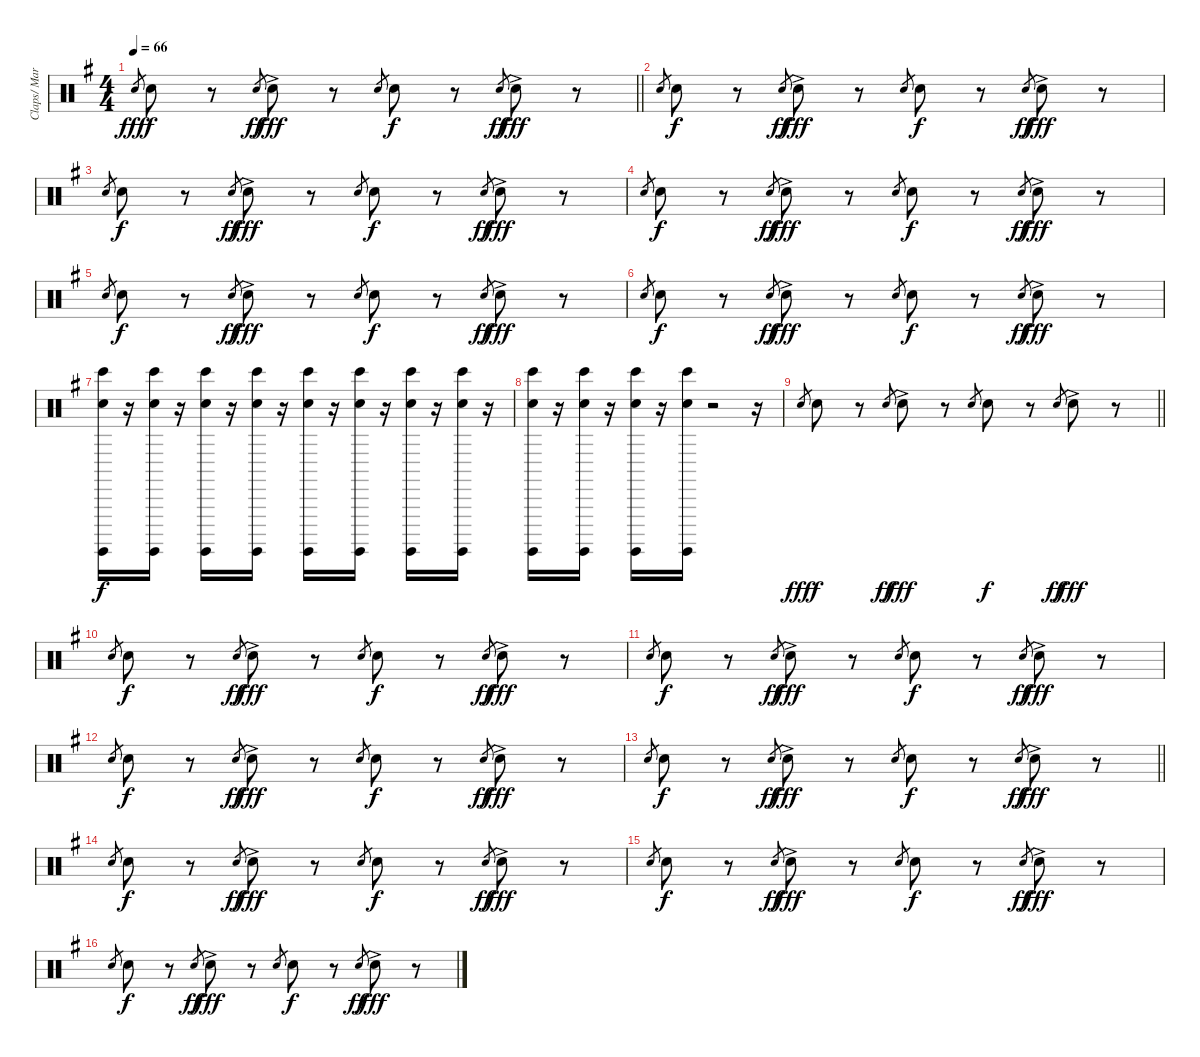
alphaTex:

\track ("Claps/ Marching FX" "Claps/ Mar") {instrument percussion}
\staff {score}
\articulation defaults
\ts (4 4)
\tempo 66
\clef neutral
\barLineRight lightlight
\ks g "Hand Clap (hit)".8{gr dy fff} "Hand Clap (hit)".8{dy f balance 12}
r.8 "Hand Clap (hit)".8{gr dy ff} "Hand Clap (hit)"{ac}.8{dy fff balance 4} r.8 "Hand Clap (hit)".8{gr} "Hand Clap (hit)".8{dy f balance 12} r.8 "Hand Clap (hit)".8{gr dy ff} "Hand Clap (hit)"{ac}.8{dy fff balance 4} r.8 |
"Hand Clap (hit)".8{gr} "Hand Clap (hit)".8{dy f balance 12} r.8 "Hand Clap (hit)".8{gr dy ff} "Hand Clap (hit)"{ac}.8{dy fff balance 4} r.8 "Hand Clap (hit)".8{gr} "Hand Clap (hit)".8{dy f balance 12} r.8 "Hand Clap (hit)".8{gr dy ff} "Hand Clap (hit)"{ac}.8{dy fff balance 4} r.8 |
"Hand Clap (hit)".8{gr} "Hand Clap (hit)".8{dy f balance 12} r.8 "Hand Clap (hit)".8{gr dy ff} "Hand Clap (hit)"{ac}.8{dy fff balance 4} r.8 "Hand Clap (hit)".8{gr} "Hand Clap (hit)".8{dy f balance 12} r.8 "Hand Clap (hit)".8{gr dy ff} "Hand Clap (hit)"{ac}.8{dy fff balance 4} r.8 |
"Hand Clap (hit)".8{gr} "Hand Clap (hit)".8{dy f balance 12} r.8 "Hand Clap (hit)".8{gr dy ff} "Hand Clap (hit)"{ac}.8{dy fff balance 4} r.8 "Hand Clap (hit)".8{gr} "Hand Clap (hit)".8{dy f balance 12} r.8 "Hand Clap (hit)".8{gr dy ff} "Hand Clap (hit)"{ac}.8{dy fff balance 4} r.8 |
"Hand Clap (hit)".8{gr} "Hand Clap (hit)".8{dy f balance 12} r.8 "Hand Clap (hit)".8{gr dy ff} "Hand Clap (hit)"{ac}.8{dy fff balance 4} r.8 "Hand Clap (hit)".8{gr} "Hand Clap (hit)".8{dy f balance 12} r.8 "Hand Clap (hit)".8{gr dy ff} "Hand Clap (hit)"{ac}.8{dy fff balance 4} r.8 |
"Hand Clap (hit)".8{gr} "Hand Clap (hit)".8{dy f balance 12} r.8 "Hand Clap (hit)".8{gr dy ff} "Hand Clap (hit)"{ac}.8{dy fff balance 4} r.8 "Hand Clap (hit)".8{gr} "Hand Clap (hit)".8{dy f balance 12} r.8 "Hand Clap (hit)".8{gr dy ff} "Hand Clap (hit)"{ac}.8{dy fff balance 4} r.8 |
("Surdo (hit)" "Hand Clap (hit)" "Bongo High (hit)").16{dy f balance 0} r.16 ("Surdo (hit)" "Hand Clap (hit)" "Bongo High (hit)").16{balance 16} r.16 ("Surdo (hit)" "Hand Clap (hit)" "Bongo High (hit)").16{balance 0} r.16 ("Surdo (hit)" "Hand Clap (hit)" "Bongo High (hit)").16{balance 16} r.16 ("Surdo (hit)" "Hand Clap (hit)" "Bongo High (hit)").16{balance 0} r.16 ("Surdo (hit)" "Hand Clap (hit)" "Bongo High (hit)").16{balance 16} r.16 ("Surdo (hit)" "Hand Clap (hit)" "Bongo High (hit)").16{balance 0} r.16 ("Surdo (hit)" "Hand Clap (hit)" "Bongo High (hit)").16{balance 16} r.16 |
("Surdo (hit)" "Hand Clap (hit)" "Bongo High (hit)").16{balance 0} r.16 ("Surdo (hit)" "Hand Clap (hit)" "Bongo High (hit)").16{balance 16} r.16 ("Surdo (hit)" "Hand Clap (hit)" "Bongo High (hit)").16{balance 0} r.16 ("Surdo (hit)" "Hand Clap (hit)" "Bongo High (hit)").16{balance 8} r.2 r.16 |
\barLineRight lightlight "Hand Clap (hit)".8{gr dy fff} "Hand Clap (hit)".8{dy f balance 12}
r.8 "Hand Clap (hit)".8{gr dy ff} "Hand Clap (hit)"{ac}.8{dy fff balance 4} r.8 "Hand Clap (hit)".8{gr} "Hand Clap (hit)".8{dy f balance 12} r.8 "Hand Clap (hit)".8{gr dy ff} "Hand Clap (hit)"{ac}.8{dy fff balance 4} r.8 |
"Hand Clap (hit)".8{gr} "Hand Clap (hit)".8{dy f balance 12} r.8 "Hand Clap (hit)".8{gr dy ff} "Hand Clap (hit)"{ac}.8{dy fff balance 4} r.8 "Hand Clap (hit)".8{gr} "Hand Clap (hit)".8{dy f balance 12} r.8 "Hand Clap (hit)".8{gr dy ff} "Hand Clap (hit)"{ac}.8{dy fff balance 4} r.8 |
"Hand Clap (hit)".8{gr} "Hand Clap (hit)".8{dy f balance 12} r.8 "Hand Clap (hit)".8{gr dy ff} "Hand Clap (hit)"{ac}.8{dy fff balance 4} r.8 "Hand Clap (hit)".8{gr} "Hand Clap (hit)".8{dy f balance 12} r.8 "Hand Clap (hit)".8{gr dy ff} "Hand Clap (hit)"{ac}.8{dy fff balance 4} r.8 |
"Hand Clap (hit)".8{gr} "Hand Clap (hit)".8{dy f balance 12} r.8 "Hand Clap (hit)".8{gr dy ff} "Hand Clap (hit)"{ac}.8{dy fff balance 4} r.8 "Hand Clap (hit)".8{gr} "Hand Clap (hit)".8{dy f balance 12} r.8 "Hand Clap (hit)".8{gr dy ff} "Hand Clap (hit)"{ac}.8{dy fff balance 4} r.8 |
\barLineRight lightlight "Hand Clap (hit)".8{gr} "Hand Clap (hit)".8{dy f balance 12}
r.8 "Hand Clap (hit)".8{gr dy ff} "Hand Clap (hit)"{ac}.8{dy fff balance 4} r.8 "Hand Clap (hit)".8{gr} "Hand Clap (hit)".8{dy f balance 12} r.8 "Hand Clap (hit)".8{gr dy ff} "Hand Clap (hit)"{ac}.8{dy fff balance 4} r.8 |
"Hand Clap (hit)".8{gr} "Hand Clap (hit)".8{dy f balance 12} r.8 "Hand Clap (hit)".8{gr dy ff} "Hand Clap (hit)"{ac}.8{dy fff balance 4} r.8 "Hand Clap (hit)".8{gr} "Hand Clap (hit)".8{dy f balance 12} r.8 "Hand Clap (hit)".8{gr dy ff} "Hand Clap (hit)"{ac}.8{dy fff balance 4} r.8 |
"Hand Clap (hit)".8{gr} "Hand Clap (hit)".8{dy f balance 12} r.8 "Hand Clap (hit)".8{gr dy ff} "Hand Clap (hit)"{ac}.8{dy fff balance 4} r.8 "Hand Clap (hit)".8{gr} "Hand Clap (hit)".8{dy f balance 12} r.8 "Hand Clap (hit)".8{gr dy ff} "Hand Clap (hit)"{ac}.8{dy fff balance 4} r.8 |
"Hand Clap (hit)".8{gr} "Hand Clap (hit)".8{dy f balance 12} r.8 "Hand Clap (hit)".8{gr dy ff} "Hand Clap (hit)"{ac}.8{dy fff balance 4} r.8 "Hand Clap (hit)".8{gr} "Hand Clap (hit)".8{dy f balance 12} r.8 "Hand Clap (hit)".8{gr dy ff} "Hand Clap (hit)"{ac}.8{dy fff balance 4} r.8
